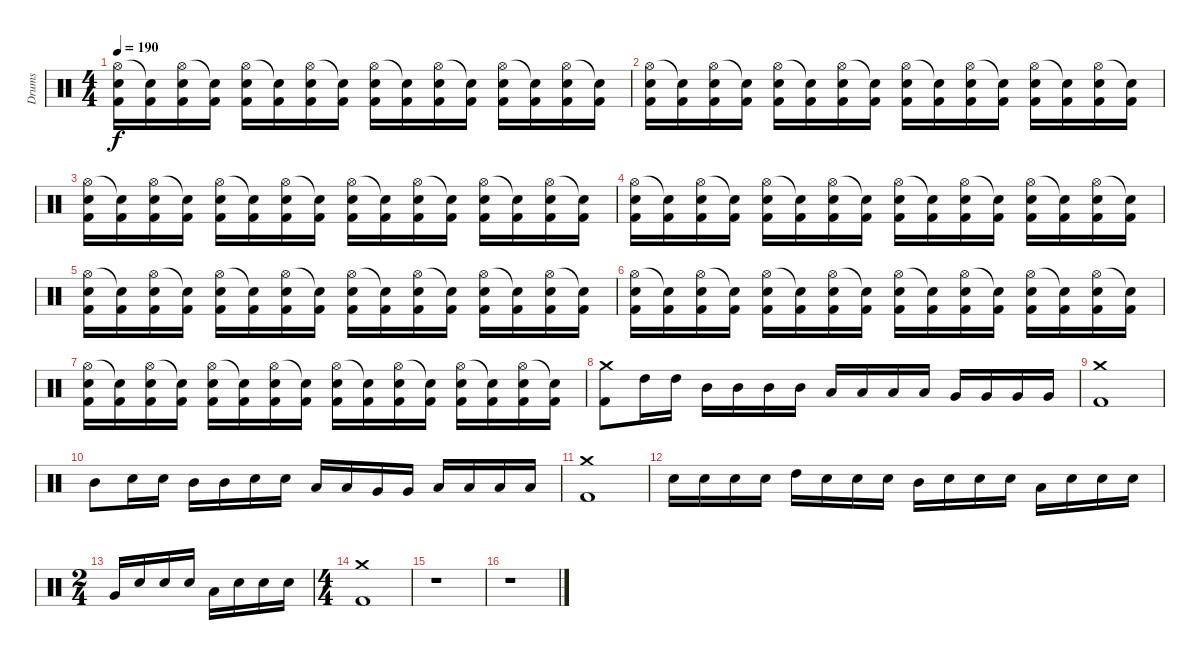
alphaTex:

\track ("Drums" "Drums") {instrument percussion}
\staff {score}
\articulation defaults
\ts (4 4)
\tempo 190
\clef neutral
\ks c
("Hi-Hat (open)" "Electric Snare (hit)" "Kick (hit) 2").16{dy f} ("Snare (hit)"{t} "Kick (hit) 2").16 ("Hi-Hat (open)" "Electric Snare (hit)" "Kick (hit) 2").16 ("Snare (hit)"{t} "Kick (hit) 2").16 ("Hi-Hat (open)" "Electric Snare (hit)" "Kick (hit) 2").16 ("Snare (hit)"{t} "Kick (hit) 2").16 ("Hi-Hat (open)" "Electric Snare (hit)" "Kick (hit) 2").16 ("Snare (hit)"{t} "Kick (hit) 2").16 ("Hi-Hat (open)" "Electric Snare (hit)" "Kick (hit) 2").16 ("Snare (hit)"{t} "Kick (hit) 2").16 ("Hi-Hat (open)" "Electric Snare (hit)" "Kick (hit) 2").16 ("Snare (hit)"{t} "Kick (hit) 2").16 ("Hi-Hat (open)" "Electric Snare (hit)" "Kick (hit) 2").16 ("Snare (hit)"{t} "Kick (hit) 2").16 ("Hi-Hat (open)" "Electric Snare (hit)" "Kick (hit) 2").16 ("Snare (hit)"{t} "Kick (hit) 2").16 |
("Hi-Hat (open)" "Electric Snare (hit)" "Kick (hit) 2").16 ("Snare (hit)"{t} "Kick (hit) 2").16 ("Hi-Hat (open)" "Electric Snare (hit)" "Kick (hit) 2").16 ("Snare (hit)"{t} "Kick (hit) 2").16 ("Hi-Hat (open)" "Electric Snare (hit)" "Kick (hit) 2").16 ("Snare (hit)"{t} "Kick (hit) 2").16 ("Hi-Hat (open)" "Electric Snare (hit)" "Kick (hit) 2").16 ("Snare (hit)"{t} "Kick (hit) 2").16 ("Hi-Hat (open)" "Electric Snare (hit)" "Kick (hit) 2").16 ("Snare (hit)"{t} "Kick (hit) 2").16 ("Hi-Hat (open)" "Electric Snare (hit)" "Kick (hit) 2").16 ("Snare (hit)"{t} "Kick (hit) 2").16 ("Hi-Hat (open)" "Electric Snare (hit)" "Kick (hit) 2").16 ("Snare (hit)"{t} "Kick (hit) 2").16 ("Hi-Hat (open)" "Electric Snare (hit)" "Kick (hit) 2").16 ("Snare (hit)"{t} "Kick (hit) 2").16 |
("Hi-Hat (open)" "Electric Snare (hit)" "Kick (hit) 2").16 ("Snare (hit)"{t} "Kick (hit) 2").16 ("Hi-Hat (open)" "Electric Snare (hit)" "Kick (hit) 2").16 ("Snare (hit)"{t} "Kick (hit) 2").16 ("Hi-Hat (open)" "Electric Snare (hit)" "Kick (hit) 2").16 ("Snare (hit)"{t} "Kick (hit) 2").16 ("Hi-Hat (open)" "Electric Snare (hit)" "Kick (hit) 2").16 ("Snare (hit)"{t} "Kick (hit) 2").16 ("Hi-Hat (open)" "Electric Snare (hit)" "Kick (hit) 2").16 ("Snare (hit)"{t} "Kick (hit) 2").16 ("Hi-Hat (open)" "Electric Snare (hit)" "Kick (hit) 2").16 ("Snare (hit)"{t} "Kick (hit) 2").16 ("Hi-Hat (open)" "Electric Snare (hit)" "Kick (hit) 2").16 ("Snare (hit)"{t} "Kick (hit) 2").16 ("Hi-Hat (open)" "Electric Snare (hit)" "Kick (hit) 2").16 ("Snare (hit)"{t} "Kick (hit) 2").16 |
("Hi-Hat (open)" "Electric Snare (hit)" "Kick (hit) 2").16 ("Snare (hit)"{t} "Kick (hit) 2").16 ("Hi-Hat (open)" "Electric Snare (hit)" "Kick (hit) 2").16 ("Snare (hit)"{t} "Kick (hit) 2").16 ("Hi-Hat (open)" "Electric Snare (hit)" "Kick (hit) 2").16 ("Snare (hit)"{t} "Kick (hit) 2").16 ("Hi-Hat (open)" "Electric Snare (hit)" "Kick (hit) 2").16 ("Snare (hit)"{t} "Kick (hit) 2").16 ("Hi-Hat (open)" "Electric Snare (hit)" "Kick (hit) 2").16 ("Snare (hit)"{t} "Kick (hit) 2").16 ("Hi-Hat (open)" "Electric Snare (hit)" "Kick (hit) 2").16 ("Snare (hit)"{t} "Kick (hit) 2").16 ("Hi-Hat (open)" "Electric Snare (hit)" "Kick (hit) 2").16 ("Snare (hit)"{t} "Kick (hit) 2").16 ("Hi-Hat (open)" "Electric Snare (hit)" "Kick (hit) 2").16 ("Snare (hit)"{t} "Kick (hit) 2").16 |
("Hi-Hat (open)" "Electric Snare (hit)" "Kick (hit) 2").16 ("Snare (hit)"{t} "Kick (hit) 2").16 ("Hi-Hat (open)" "Electric Snare (hit)" "Kick (hit) 2").16 ("Snare (hit)"{t} "Kick (hit) 2").16 ("Hi-Hat (open)" "Electric Snare (hit)" "Kick (hit) 2").16 ("Snare (hit)"{t} "Kick (hit) 2").16 ("Hi-Hat (open)" "Electric Snare (hit)" "Kick (hit) 2").16 ("Snare (hit)"{t} "Kick (hit) 2").16 ("Hi-Hat (open)" "Electric Snare (hit)" "Kick (hit) 2").16 ("Snare (hit)"{t} "Kick (hit) 2").16 ("Hi-Hat (open)" "Electric Snare (hit)" "Kick (hit) 2").16 ("Snare (hit)"{t} "Kick (hit) 2").16 ("Hi-Hat (open)" "Electric Snare (hit)" "Kick (hit) 2").16 ("Snare (hit)"{t} "Kick (hit) 2").16 ("Hi-Hat (open)" "Electric Snare (hit)" "Kick (hit) 2").16 ("Snare (hit)"{t} "Kick (hit) 2").16 |
("Hi-Hat (open)" "Electric Snare (hit)" "Kick (hit) 2").16 ("Snare (hit)"{t} "Kick (hit) 2").16 ("Hi-Hat (open)" "Electric Snare (hit)" "Kick (hit) 2").16 ("Snare (hit)"{t} "Kick (hit) 2").16 ("Hi-Hat (open)" "Electric Snare (hit)" "Kick (hit) 2").16 ("Snare (hit)"{t} "Kick (hit) 2").16 ("Hi-Hat (open)" "Electric Snare (hit)" "Kick (hit) 2").16 ("Snare (hit)"{t} "Kick (hit) 2").16 ("Hi-Hat (open)" "Electric Snare (hit)" "Kick (hit) 2").16 ("Snare (hit)"{t} "Kick (hit) 2").16 ("Hi-Hat (open)" "Electric Snare (hit)" "Kick (hit) 2").16 ("Snare (hit)"{t} "Kick (hit) 2").16 ("Hi-Hat (open)" "Electric Snare (hit)" "Kick (hit) 2").16 ("Snare (hit)"{t} "Kick (hit) 2").16 ("Hi-Hat (open)" "Electric Snare (hit)" "Kick (hit) 2").16 ("Snare (hit)"{t} "Kick (hit) 2").16 |
("Hi-Hat (open)" "Electric Snare (hit)" "Kick (hit) 2").16 ("Snare (hit)"{t} "Kick (hit) 2").16 ("Hi-Hat (open)" "Electric Snare (hit)" "Kick (hit) 2").16 ("Snare (hit)"{t} "Kick (hit) 2").16 ("Hi-Hat (open)" "Electric Snare (hit)" "Kick (hit) 2").16 ("Snare (hit)"{t} "Kick (hit) 2").16 ("Hi-Hat (open)" "Electric Snare (hit)" "Kick (hit) 2").16 ("Snare (hit)"{t} "Kick (hit) 2").16 ("Hi-Hat (open)" "Electric Snare (hit)" "Kick (hit) 2").16 ("Snare (hit)"{t} "Kick (hit) 2").16 ("Hi-Hat (open)" "Electric Snare (hit)" "Kick (hit) 2").16 ("Snare (hit)"{t} "Kick (hit) 2").16 ("Hi-Hat (open)" "Electric Snare (hit)" "Kick (hit) 2").16 ("Snare (hit)"{t} "Kick (hit) 2").16 ("Hi-Hat (open)" "Electric Snare (hit)" "Kick (hit) 2").16 ("Snare (hit)"{t} "Kick (hit) 2").16 |
("Crash medium (hit)" "Kick (hit) 2").8 "High Tom (hit)".16 "High Tom (hit)".16 "Mid Tom (hit)".16 "Mid Tom (hit)".16 "Mid Tom (hit)".16 "Mid Tom (hit)".16 "Low Tom (hit)".16 "Low Tom (hit)".16 "Low Tom (hit)".16 "Low Tom (hit)".16 "Very Low Tom (hit)".16 "Very Low Tom (hit)".16 "Very Low Tom (hit)".16 "Very Low Tom (hit)".16 |
("Crash medium (hit)" "Kick (hit) 2").1 |
"Mid Tom (hit)".8 "Electric Snare (hit)".16 "Electric Snare (hit)".16 "Mid Tom (hit)".16 "Mid Tom (hit)".16 "Electric Snare (hit)".16 "Electric Snare (hit)".16 "Low Tom (hit)".16 "Low Tom (hit)".16 "Very Low Tom (hit)".16 "Very Low Tom (hit)".16 "Low Floor Tom (hit)".16 "Low Floor Tom (hit)".16 "Low Floor Tom (hit)".16 "Low Floor Tom (hit)".16 |
("Crash medium (hit)" "Kick (hit) 2").1 |
"Electric Snare (hit)".16 "Electric Snare (hit)".16 "Electric Snare (hit)".16 "Electric Snare (hit)".16 "High Tom (hit)".16 "Electric Snare (hit)".16 "Electric Snare (hit)".16 "Electric Snare (hit)".16 "Mid Tom (hit)".16 "Electric Snare (hit)".16 "Electric Snare (hit)".16 "Electric Snare (hit)".16 "Low Tom (hit)".16 "Electric Snare (hit)".16 "Electric Snare (hit)".16 "Electric Snare (hit)".16 |
\ts (2 4)
"Very Low Tom (hit)".16 "Electric Snare (hit)".16 "Electric Snare (hit)".16 "Electric Snare (hit)".16 "Low Floor Tom (hit)".16 "Electric Snare (hit)".16 "Electric Snare (hit)".16 "Electric Snare (hit)".16 |
\ts (4 4)
("Crash medium (hit)" "Kick (hit) 2").1 |
r.1 |
r.1
